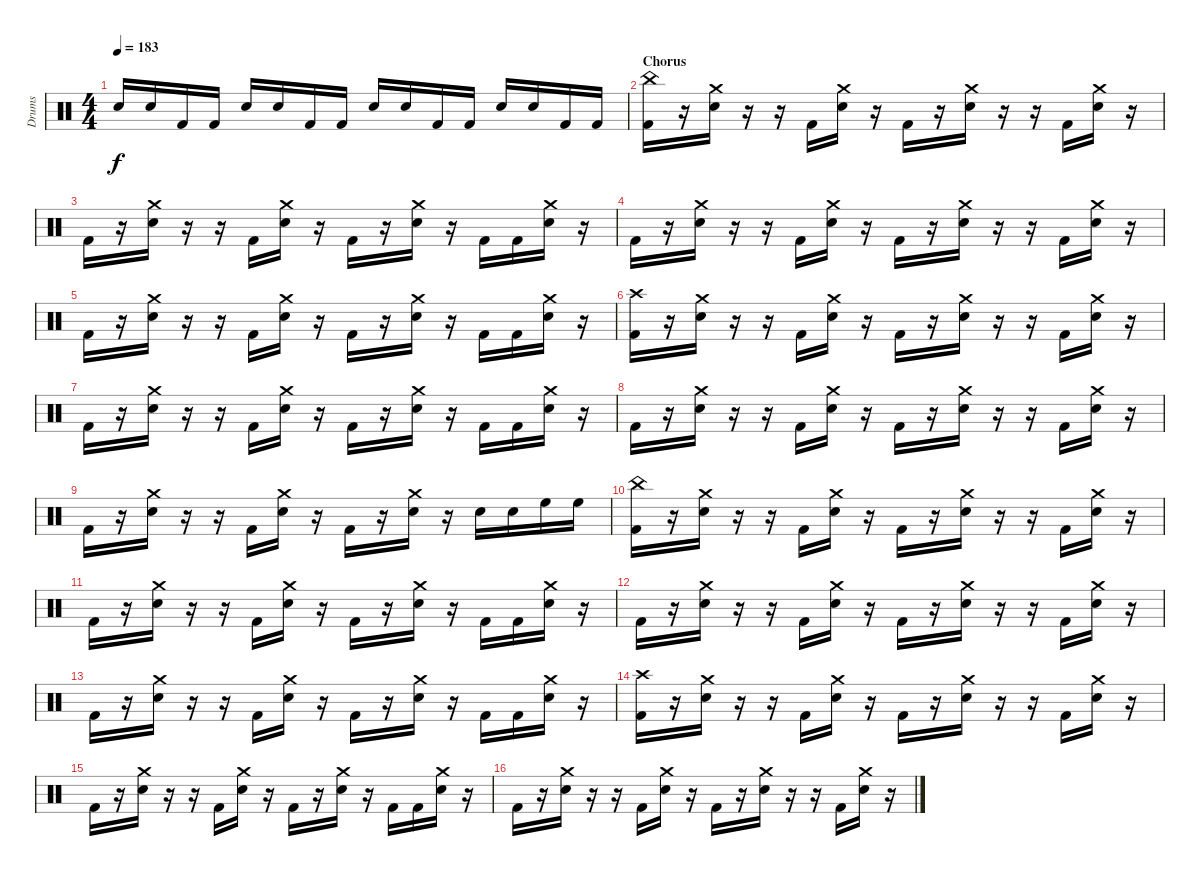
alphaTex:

\track ("Drums" "Drums") {instrument percussion}
\staff {score}
\articulation defaults
\ts (4 4)
\tempo 183
\clef neutral
\ks c "Electric Snare (hit)".16{dy f} "Electric Snare (hit)".16 "Kick (hit) 2".16 "Kick (hit) 2".16 "Electric Snare (hit)".16 "Electric Snare (hit)".16 "Kick (hit) 2".16 "Kick (hit) 2".16 "Electric Snare (hit)".16 "Electric Snare (hit)".16 "Kick (hit) 2".16 "Kick (hit) 2".16 "Electric Snare (hit)".16 "Electric Snare (hit)".16 "Kick (hit) 2".16 "Kick (hit) 2".16
|
\section ("" "Chorus")
("China (hit)" "Kick (hit) 2").16 r.16 ("Crash medium (hit)" "Electric Snare (hit)").16 r.16 r.16 "Kick (hit) 2".16 ("Crash medium (hit)" "Electric Snare (hit)").16 r.16 "Kick (hit) 2".16 r.16 ("Crash medium (hit)" "Electric Snare (hit)").16 r.16 r.16 "Kick (hit) 2".16 ("Crash medium (hit)" "Electric Snare (hit)").16 r.16 |
"Kick (hit) 2".16 r.16 ("Crash medium (hit)" "Electric Snare (hit)").16 r.16 r.16 "Kick (hit) 2".16 ("Crash medium (hit)" "Electric Snare (hit)").16 r.16 "Kick (hit) 2".16 r.16 ("Crash medium (hit)" "Electric Snare (hit)").16 r.16 "Kick (hit) 2".16 "Kick (hit) 2".16 ("Crash medium (hit)" "Electric Snare (hit)").16 r.16 |
"Kick (hit) 2".16 r.16 ("Crash medium (hit)" "Electric Snare (hit)").16 r.16 r.16 "Kick (hit) 2".16 ("Crash medium (hit)" "Electric Snare (hit)").16 r.16 "Kick (hit) 2".16 r.16 ("Crash medium (hit)" "Electric Snare (hit)").16 r.16 r.16 "Kick (hit) 2".16 ("Crash medium (hit)" "Electric Snare (hit)").16 r.16 |
"Kick (hit) 2".16 r.16 ("Crash medium (hit)" "Electric Snare (hit)").16 r.16 r.16 "Kick (hit) 2".16 ("Crash medium (hit)" "Electric Snare (hit)").16 r.16 "Kick (hit) 2".16 r.16 ("Crash medium (hit)" "Electric Snare (hit)").16 r.16 "Kick (hit) 2".16 "Kick (hit) 2".16 ("Crash medium (hit)" "Electric Snare (hit)").16 r.16 |
("Crash high (hit)" "Kick (hit) 2").16 r.16 ("Crash medium (hit)" "Electric Snare (hit)").16 r.16 r.16 "Kick (hit) 2".16 ("Crash medium (hit)" "Electric Snare (hit)").16 r.16 "Kick (hit) 2".16 r.16 ("Crash medium (hit)" "Electric Snare (hit)").16 r.16 r.16 "Kick (hit) 2".16 ("Crash medium (hit)" "Electric Snare (hit)").16 r.16 |
"Kick (hit) 2".16 r.16 ("Crash medium (hit)" "Electric Snare (hit)").16 r.16 r.16 "Kick (hit) 2".16 ("Crash medium (hit)" "Electric Snare (hit)").16 r.16 "Kick (hit) 2".16 r.16 ("Crash medium (hit)" "Electric Snare (hit)").16 r.16 "Kick (hit) 2".16 "Kick (hit) 2".16 ("Crash medium (hit)" "Electric Snare (hit)").16 r.16 |
"Kick (hit) 2".16 r.16 ("Crash medium (hit)" "Electric Snare (hit)").16 r.16 r.16 "Kick (hit) 2".16 ("Crash medium (hit)" "Electric Snare (hit)").16 r.16 "Kick (hit) 2".16 r.16 ("Crash medium (hit)" "Electric Snare (hit)").16 r.16 r.16 "Kick (hit) 2".16 ("Crash medium (hit)" "Electric Snare (hit)").16 r.16 |
"Kick (hit) 2".16 r.16 ("Crash medium (hit)" "Electric Snare (hit)").16 r.16 r.16 "Kick (hit) 2".16 ("Crash medium (hit)" "Electric Snare (hit)").16 r.16 "Kick (hit) 2".16 r.16 ("Crash medium (hit)" "Electric Snare (hit)").16 r.16 "Electric Snare (hit)".16 "Electric Snare (hit)".16 "High Floor Tom (hit)".16 "High Floor Tom (hit)".16 |
("China (hit)" "Kick (hit) 2").16 r.16 ("Crash medium (hit)" "Electric Snare (hit)").16 r.16 r.16 "Kick (hit) 2".16 ("Crash medium (hit)" "Electric Snare (hit)").16 r.16 "Kick (hit) 2".16 r.16 ("Crash medium (hit)" "Electric Snare (hit)").16 r.16 r.16 "Kick (hit) 2".16 ("Crash medium (hit)" "Electric Snare (hit)").16 r.16 |
"Kick (hit) 2".16 r.16 ("Crash medium (hit)" "Electric Snare (hit)").16 r.16 r.16 "Kick (hit) 2".16 ("Crash medium (hit)" "Electric Snare (hit)").16 r.16 "Kick (hit) 2".16 r.16 ("Crash medium (hit)" "Electric Snare (hit)").16 r.16 "Kick (hit) 2".16 "Kick (hit) 2".16 ("Crash medium (hit)" "Electric Snare (hit)").16 r.16 |
"Kick (hit) 2".16 r.16 ("Crash medium (hit)" "Electric Snare (hit)").16 r.16 r.16 "Kick (hit) 2".16 ("Crash medium (hit)" "Electric Snare (hit)").16 r.16 "Kick (hit) 2".16 r.16 ("Crash medium (hit)" "Electric Snare (hit)").16 r.16 r.16 "Kick (hit) 2".16 ("Crash medium (hit)" "Electric Snare (hit)").16 r.16 |
"Kick (hit) 2".16 r.16 ("Crash medium (hit)" "Electric Snare (hit)").16 r.16 r.16 "Kick (hit) 2".16 ("Crash medium (hit)" "Electric Snare (hit)").16 r.16 "Kick (hit) 2".16 r.16 ("Crash medium (hit)" "Electric Snare (hit)").16 r.16 "Kick (hit) 2".16 "Kick (hit) 2".16 ("Crash medium (hit)" "Electric Snare (hit)").16 r.16 |
("Crash high (hit)" "Kick (hit) 2").16 r.16 ("Crash medium (hit)" "Electric Snare (hit)").16 r.16 r.16 "Kick (hit) 2".16 ("Crash medium (hit)" "Electric Snare (hit)").16 r.16 "Kick (hit) 2".16 r.16 ("Crash medium (hit)" "Electric Snare (hit)").16 r.16 r.16 "Kick (hit) 2".16 ("Crash medium (hit)" "Electric Snare (hit)").16 r.16 |
"Kick (hit) 2".16 r.16 ("Crash medium (hit)" "Electric Snare (hit)").16 r.16 r.16 "Kick (hit) 2".16 ("Crash medium (hit)" "Electric Snare (hit)").16 r.16 "Kick (hit) 2".16 r.16 ("Crash medium (hit)" "Electric Snare (hit)").16 r.16 "Kick (hit) 2".16 "Kick (hit) 2".16 ("Crash medium (hit)" "Electric Snare (hit)").16 r.16 |
"Kick (hit) 2".16 r.16 ("Crash medium (hit)" "Electric Snare (hit)").16 r.16 r.16 "Kick (hit) 2".16 ("Crash medium (hit)" "Electric Snare (hit)").16 r.16 "Kick (hit) 2".16 r.16 ("Crash medium (hit)" "Electric Snare (hit)").16 r.16 r.16 "Kick (hit) 2".16 ("Crash medium (hit)" "Electric Snare (hit)").16 r.16
